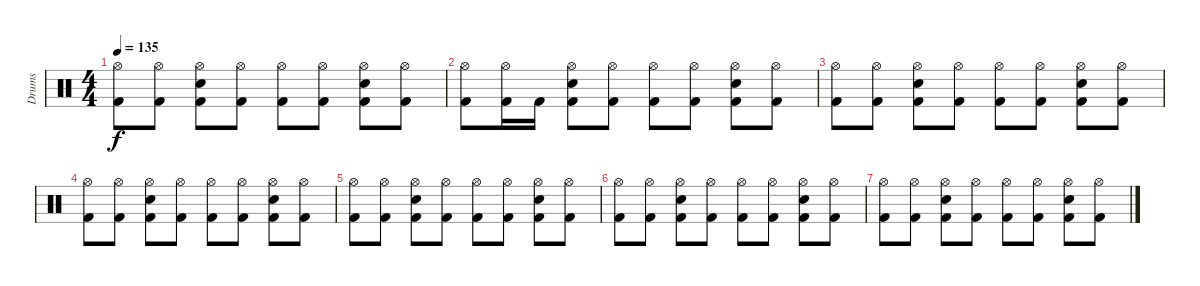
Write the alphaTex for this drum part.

\track ("Drums" "Drums") {instrument percussion}
\staff {score}
\articulation defaults
\ts (4 4)
\tempo 135
\clef neutral
\ks c
("Hi-Hat (open)" "Kick (hit) 2").8{dy f} ("Hi-Hat (open)" "Kick (hit) 2").8 ("Hi-Hat (open)" "Electric Snare (hit)" "Kick (hit) 2").8 ("Hi-Hat (open)" "Kick (hit) 2").8 ("Hi-Hat (open)" "Kick (hit) 2").8 ("Hi-Hat (open)" "Kick (hit) 2").8 ("Hi-Hat (open)" "Electric Snare (hit)" "Kick (hit) 2").8 ("Hi-Hat (open)" "Kick (hit) 2").8 |
("Hi-Hat (open)" "Kick (hit) 2").8 ("Hi-Hat (open)" "Kick (hit) 2").16 "Kick (hit) 2".16 ("Hi-Hat (open)" "Electric Snare (hit)" "Kick (hit) 2").8 ("Hi-Hat (open)" "Kick (hit) 2").8 ("Hi-Hat (open)" "Kick (hit) 2").8 ("Hi-Hat (open)" "Kick (hit) 2").8 ("Hi-Hat (open)" "Electric Snare (hit)" "Kick (hit) 2").8 ("Hi-Hat (open)" "Kick (hit) 2").8 |
("Hi-Hat (open)" "Kick (hit) 2").8 ("Hi-Hat (open)" "Kick (hit) 2").8 ("Hi-Hat (open)" "Electric Snare (hit)" "Kick (hit) 2").8 ("Hi-Hat (open)" "Kick (hit) 2").8 ("Hi-Hat (open)" "Kick (hit) 2").8 ("Hi-Hat (open)" "Kick (hit) 2").8 ("Hi-Hat (open)" "Electric Snare (hit)" "Kick (hit) 2").8 ("Hi-Hat (open)" "Kick (hit) 2").8 |
("Hi-Hat (open)" "Kick (hit) 2").8{volume 6} ("Hi-Hat (open)" "Kick (hit) 2").8 ("Hi-Hat (open)" "Electric Snare (hit)" "Kick (hit) 2").8 ("Hi-Hat (open)" "Kick (hit) 2").8 ("Hi-Hat (open)" "Kick (hit) 2").8 ("Hi-Hat (open)" "Kick (hit) 2").8 ("Hi-Hat (open)" "Electric Snare (hit)" "Kick (hit) 2").8 ("Hi-Hat (open)" "Kick (hit) 2").8 |
("Hi-Hat (open)" "Kick (hit) 2").8 ("Hi-Hat (open)" "Kick (hit) 2").8 ("Hi-Hat (open)" "Electric Snare (hit)" "Kick (hit) 2").8 ("Hi-Hat (open)" "Kick (hit) 2").8 ("Hi-Hat (open)" "Kick (hit) 2").8 ("Hi-Hat (open)" "Kick (hit) 2").8 ("Hi-Hat (open)" "Electric Snare (hit)" "Kick (hit) 2").8 ("Hi-Hat (open)" "Kick (hit) 2").8 |
("Hi-Hat (open)" "Kick (hit) 2").8{volume 2} ("Hi-Hat (open)" "Kick (hit) 2").8 ("Hi-Hat (open)" "Electric Snare (hit)" "Kick (hit) 2").8 ("Hi-Hat (open)" "Kick (hit) 2").8 ("Hi-Hat (open)" "Kick (hit) 2").8 ("Hi-Hat (open)" "Kick (hit) 2").8 ("Hi-Hat (open)" "Electric Snare (hit)" "Kick (hit) 2").8 ("Hi-Hat (open)" "Kick (hit) 2").8 |
("Hi-Hat (open)" "Kick (hit) 2").8 ("Hi-Hat (open)" "Kick (hit) 2").8 ("Hi-Hat (open)" "Electric Snare (hit)" "Kick (hit) 2").8 ("Hi-Hat (open)" "Kick (hit) 2").8 ("Hi-Hat (open)" "Kick (hit) 2").8 ("Hi-Hat (open)" "Kick (hit) 2").8 ("Hi-Hat (open)" "Electric Snare (hit)" "Kick (hit) 2").8 ("Hi-Hat (open)" "Kick (hit) 2").8
